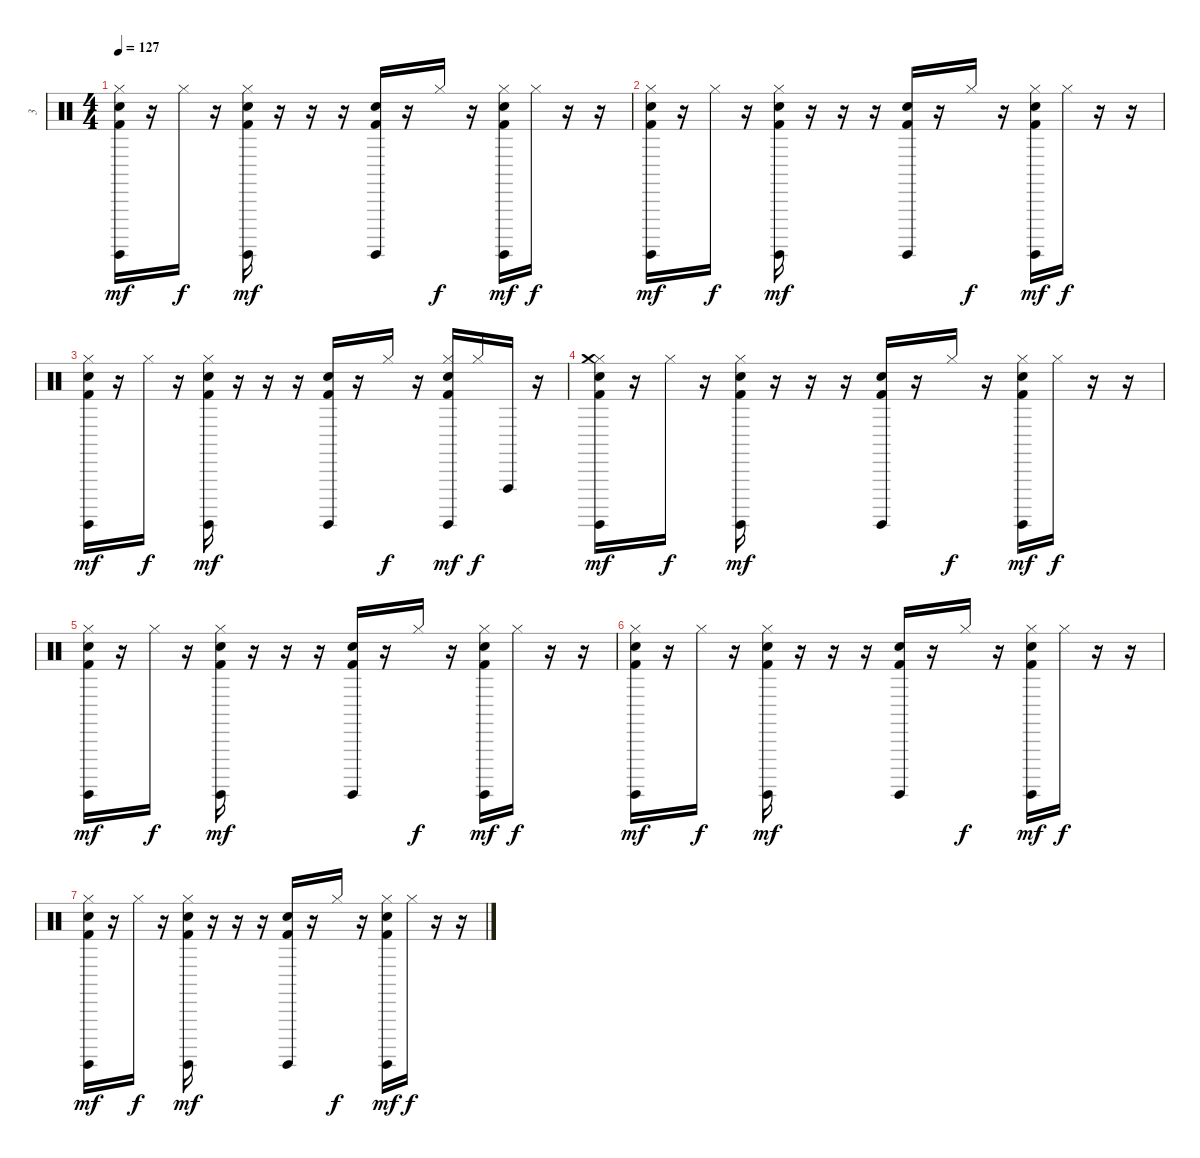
\track ("3" "3") {instrument percussion}
\staff {score}
\articulation defaults
\ts (4 4)
\tempo 127
\clef neutral
\ks c
("Hi-Hat (closed)" "Surdo (hit)" "Kick (hit) 2" "Hand Clap (hit)").16{dy mf} r.16 "Hi-Hat (closed)".16{dy f} r.16 ("Hi-Hat (closed)" "Surdo (hit)" "Kick (hit) 2" "Hand Clap (hit)").16{dy mf} r.16 r.16 r.16 ("Surdo (hit)" "Kick (hit) 2" "Hand Clap (hit)").16 r.16 "Hi-Hat (closed)".16{dy f} r.16 ("Hi-Hat (closed)" "Surdo (hit)" "Kick (hit) 2" "Hand Clap (hit)").16{dy mf} "Hi-Hat (closed)".16{dy f} r.16 r.16 |
("Hi-Hat (closed)" "Surdo (hit)" "Kick (hit) 2" "Hand Clap (hit)").16{dy mf} r.16 "Hi-Hat (closed)".16{dy f} r.16 ("Hi-Hat (closed)" "Surdo (hit)" "Kick (hit) 2" "Hand Clap (hit)").16{dy mf} r.16 r.16 r.16 ("Surdo (hit)" "Kick (hit) 2" "Hand Clap (hit)").16 r.16 "Hi-Hat (closed)".16{dy f} r.16 ("Hi-Hat (closed)" "Surdo (hit)" "Kick (hit) 2" "Hand Clap (hit)").16{dy mf} "Hi-Hat (closed)".16{dy f} r.16 r.16 |
("Hi-Hat (closed)" "Surdo (hit)" "Kick (hit) 2" "Hand Clap (hit)").16{dy mf volume 0} r.16 "Hi-Hat (closed)".16{dy f} r.16 ("Hi-Hat (closed)" "Surdo (hit)" "Kick (hit) 2" "Hand Clap (hit)").16{dy mf} r.16 r.16 r.16 ("Surdo (hit)" "Kick (hit) 2" "Hand Clap (hit)").16 r.16 "Hi-Hat (closed)".16{dy f} r.16 ("Hi-Hat (closed)" "Surdo (hit)" "Kick (hit) 2" "Hand Clap (hit)").16{dy mf} "Hi-Hat (closed)".16{dy f} "Vibraslap (hit)".16 r.16 |
("Hi-Hat (closed)" "Crash medium (hit)" "Surdo (hit)" "Kick (hit) 2" "Hand Clap (hit)").16{dy mf} r.16 "Hi-Hat (closed)".16{dy f} r.16 ("Hi-Hat (closed)" "Surdo (hit)" "Kick (hit) 2" "Hand Clap (hit)").16{dy mf} r.16 r.16 r.16 ("Surdo (hit)" "Kick (hit) 2" "Hand Clap (hit)").16 r.16 "Hi-Hat (closed)".16{dy f} r.16 ("Hi-Hat (closed)" "Surdo (hit)" "Kick (hit) 2" "Hand Clap (hit)").16{dy mf} "Hi-Hat (closed)".16{dy f} r.16 r.16 |
("Hi-Hat (closed)" "Surdo (hit)" "Kick (hit) 2" "Hand Clap (hit)").16{dy mf} r.16 "Hi-Hat (closed)".16{dy f} r.16 ("Hi-Hat (closed)" "Surdo (hit)" "Kick (hit) 2" "Hand Clap (hit)").16{dy mf} r.16 r.16 r.16 ("Surdo (hit)" "Kick (hit) 2" "Hand Clap (hit)").16 r.16 "Hi-Hat (closed)".16{dy f} r.16 ("Hi-Hat (closed)" "Surdo (hit)" "Kick (hit) 2" "Hand Clap (hit)").16{dy mf} "Hi-Hat (closed)".16{dy f} r.16 r.16 |
("Hi-Hat (closed)" "Surdo (hit)" "Kick (hit) 2" "Hand Clap (hit)").16{dy mf} r.16 "Hi-Hat (closed)".16{dy f} r.16 ("Hi-Hat (closed)" "Surdo (hit)" "Kick (hit) 2" "Hand Clap (hit)").16{dy mf} r.16 r.16 r.16 ("Surdo (hit)" "Kick (hit) 2" "Hand Clap (hit)").16 r.16 "Hi-Hat (closed)".16{dy f} r.16 ("Hi-Hat (closed)" "Surdo (hit)" "Kick (hit) 2" "Hand Clap (hit)").16{dy mf} "Hi-Hat (closed)".16{dy f} r.16 r.16 |
("Hi-Hat (closed)" "Surdo (hit)" "Kick (hit) 2" "Hand Clap (hit)").16{dy mf} r.16 "Hi-Hat (closed)".16{dy f} r.16 ("Hi-Hat (closed)" "Surdo (hit)" "Kick (hit) 2" "Hand Clap (hit)").16{dy mf} r.16 r.16 r.16 ("Surdo (hit)" "Kick (hit) 2" "Hand Clap (hit)").16 r.16 "Hi-Hat (closed)".16{dy f} r.16 ("Hi-Hat (closed)" "Surdo (hit)" "Kick (hit) 2" "Hand Clap (hit)").16{dy mf} "Hi-Hat (closed)".16{dy f} r.16 r.16
